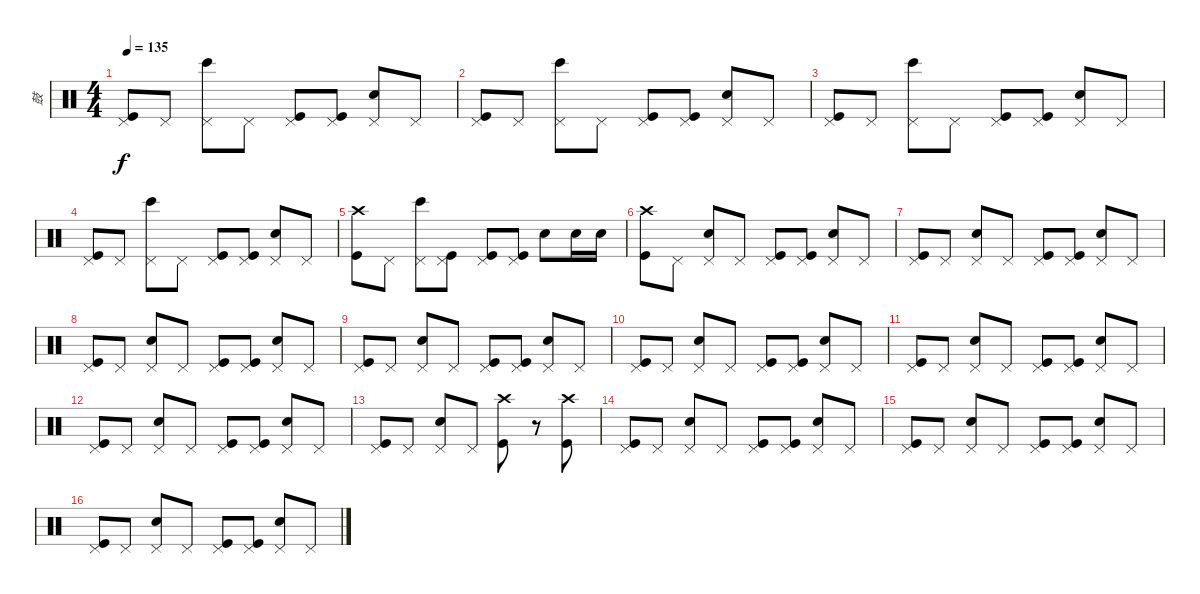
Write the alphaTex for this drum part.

\track ("鼓" "鼓") {instrument percussion}
\staff {score}
\articulation defaults
\ts (4 4)
\tempo 135
\clef neutral
\ks c
("Pedal Hi-Hat (hit)" "Kick (hit)").8{dy f} "Pedal Hi-Hat (hit)".8 ("Pedal Hi-Hat (hit)" "Bongo High (hit)").8 "Pedal Hi-Hat (hit)".8 ("Pedal Hi-Hat (hit)" "Kick (hit)").8 ("Pedal Hi-Hat (hit)" "Kick (hit)").8 ("Pedal Hi-Hat (hit)" "Snare (hit) 2").8 "Pedal Hi-Hat (hit)".8 |
("Pedal Hi-Hat (hit)" "Kick (hit)").8 "Pedal Hi-Hat (hit)".8 ("Pedal Hi-Hat (hit)" "Bongo High (hit)").8 "Pedal Hi-Hat (hit)".8 ("Pedal Hi-Hat (hit)" "Kick (hit)").8 ("Pedal Hi-Hat (hit)" "Kick (hit)").8 ("Pedal Hi-Hat (hit)" "Snare (hit) 2").8 "Pedal Hi-Hat (hit)".8 |
("Pedal Hi-Hat (hit)" "Kick (hit)").8 "Pedal Hi-Hat (hit)".8 ("Pedal Hi-Hat (hit)" "Bongo High (hit)").8 "Pedal Hi-Hat (hit)".8 ("Pedal Hi-Hat (hit)" "Kick (hit)").8 ("Pedal Hi-Hat (hit)" "Kick (hit)").8 ("Pedal Hi-Hat (hit)" "Snare (hit) 2").8 "Pedal Hi-Hat (hit)".8 |
("Pedal Hi-Hat (hit)" "Kick (hit)").8 "Pedal Hi-Hat (hit)".8 ("Pedal Hi-Hat (hit)" "Bongo High (hit)").8 "Pedal Hi-Hat (hit)".8 ("Pedal Hi-Hat (hit)" "Kick (hit)").8 ("Pedal Hi-Hat (hit)" "Kick (hit)").8 ("Pedal Hi-Hat (hit)" "Snare (hit) 2").8 "Pedal Hi-Hat (hit)".8 |
("Crash high (hit)" "Kick (hit)").8 "Pedal Hi-Hat (hit)".8 ("Pedal Hi-Hat (hit)" "Bongo High (hit)").8 ("Pedal Hi-Hat (hit)" "Kick (hit)").8 ("Pedal Hi-Hat (hit)" "Kick (hit)").8 ("Pedal Hi-Hat (hit)" "Kick (hit)").8 "Snare (hit) 2".8 "Snare (hit) 2".16 "Snare (hit) 2".16 |
("Crash high (hit)" "Kick (hit)").8 "Pedal Hi-Hat (hit)".8 ("Pedal Hi-Hat (hit)" "Snare (hit) 2").8 "Pedal Hi-Hat (hit)".8 ("Pedal Hi-Hat (hit)" "Kick (hit)").8 ("Pedal Hi-Hat (hit)" "Kick (hit)").8 ("Pedal Hi-Hat (hit)" "Snare (hit) 2").8 "Pedal Hi-Hat (hit)".8 |
("Pedal Hi-Hat (hit)" "Kick (hit)").8 "Pedal Hi-Hat (hit)".8 ("Pedal Hi-Hat (hit)" "Snare (hit) 2").8 "Pedal Hi-Hat (hit)".8 ("Pedal Hi-Hat (hit)" "Kick (hit)").8 ("Pedal Hi-Hat (hit)" "Kick (hit)").8 ("Pedal Hi-Hat (hit)" "Snare (hit) 2").8 "Pedal Hi-Hat (hit)".8 |
("Pedal Hi-Hat (hit)" "Kick (hit)").8 "Pedal Hi-Hat (hit)".8 ("Pedal Hi-Hat (hit)" "Snare (hit) 2").8 "Pedal Hi-Hat (hit)".8 ("Pedal Hi-Hat (hit)" "Kick (hit)").8 ("Pedal Hi-Hat (hit)" "Kick (hit)").8 ("Pedal Hi-Hat (hit)" "Snare (hit) 2").8 "Pedal Hi-Hat (hit)".8 |
("Pedal Hi-Hat (hit)" "Kick (hit)").8 "Pedal Hi-Hat (hit)".8 ("Pedal Hi-Hat (hit)" "Snare (hit) 2").8 "Pedal Hi-Hat (hit)".8 ("Pedal Hi-Hat (hit)" "Kick (hit)").8 ("Pedal Hi-Hat (hit)" "Kick (hit)").8 ("Pedal Hi-Hat (hit)" "Snare (hit) 2").8 "Pedal Hi-Hat (hit)".8 |
("Pedal Hi-Hat (hit)" "Kick (hit)").8 "Pedal Hi-Hat (hit)".8 ("Pedal Hi-Hat (hit)" "Snare (hit) 2").8 "Pedal Hi-Hat (hit)".8 ("Pedal Hi-Hat (hit)" "Kick (hit)").8 ("Pedal Hi-Hat (hit)" "Kick (hit)").8 ("Pedal Hi-Hat (hit)" "Snare (hit) 2").8 "Pedal Hi-Hat (hit)".8 |
("Pedal Hi-Hat (hit)" "Kick (hit)").8 "Pedal Hi-Hat (hit)".8 ("Pedal Hi-Hat (hit)" "Snare (hit) 2").8 "Pedal Hi-Hat (hit)".8 ("Pedal Hi-Hat (hit)" "Kick (hit)").8 ("Pedal Hi-Hat (hit)" "Kick (hit)").8 ("Pedal Hi-Hat (hit)" "Snare (hit) 2").8 "Pedal Hi-Hat (hit)".8 |
("Pedal Hi-Hat (hit)" "Kick (hit)").8 "Pedal Hi-Hat (hit)".8 ("Pedal Hi-Hat (hit)" "Snare (hit) 2").8 "Pedal Hi-Hat (hit)".8 ("Pedal Hi-Hat (hit)" "Kick (hit)").8 ("Pedal Hi-Hat (hit)" "Kick (hit)").8 ("Pedal Hi-Hat (hit)" "Snare (hit) 2").8 "Pedal Hi-Hat (hit)".8 |
("Pedal Hi-Hat (hit)" "Kick (hit)").8 "Pedal Hi-Hat (hit)".8 ("Pedal Hi-Hat (hit)" "Snare (hit) 2").8 "Pedal Hi-Hat (hit)".8 ("Crash high (hit)" "Kick (hit)").8 r.8 ("Crash high (hit)" "Kick (hit)").8 |
("Pedal Hi-Hat (hit)" "Kick (hit)").8 "Pedal Hi-Hat (hit)".8 ("Pedal Hi-Hat (hit)" "Snare (hit) 2").8 "Pedal Hi-Hat (hit)".8 ("Pedal Hi-Hat (hit)" "Kick (hit)").8 ("Pedal Hi-Hat (hit)" "Kick (hit)").8 ("Pedal Hi-Hat (hit)" "Snare (hit) 2").8 "Pedal Hi-Hat (hit)".8 |
("Pedal Hi-Hat (hit)" "Kick (hit)").8 "Pedal Hi-Hat (hit)".8 ("Pedal Hi-Hat (hit)" "Snare (hit) 2").8 "Pedal Hi-Hat (hit)".8 ("Pedal Hi-Hat (hit)" "Kick (hit)").8 ("Pedal Hi-Hat (hit)" "Kick (hit)").8 ("Pedal Hi-Hat (hit)" "Snare (hit) 2").8 "Pedal Hi-Hat (hit)".8 |
("Pedal Hi-Hat (hit)" "Kick (hit)").8 "Pedal Hi-Hat (hit)".8 ("Pedal Hi-Hat (hit)" "Snare (hit) 2").8 "Pedal Hi-Hat (hit)".8 ("Pedal Hi-Hat (hit)" "Kick (hit)").8 ("Pedal Hi-Hat (hit)" "Kick (hit)").8 ("Pedal Hi-Hat (hit)" "Snare (hit) 2").8 "Pedal Hi-Hat (hit)".8
